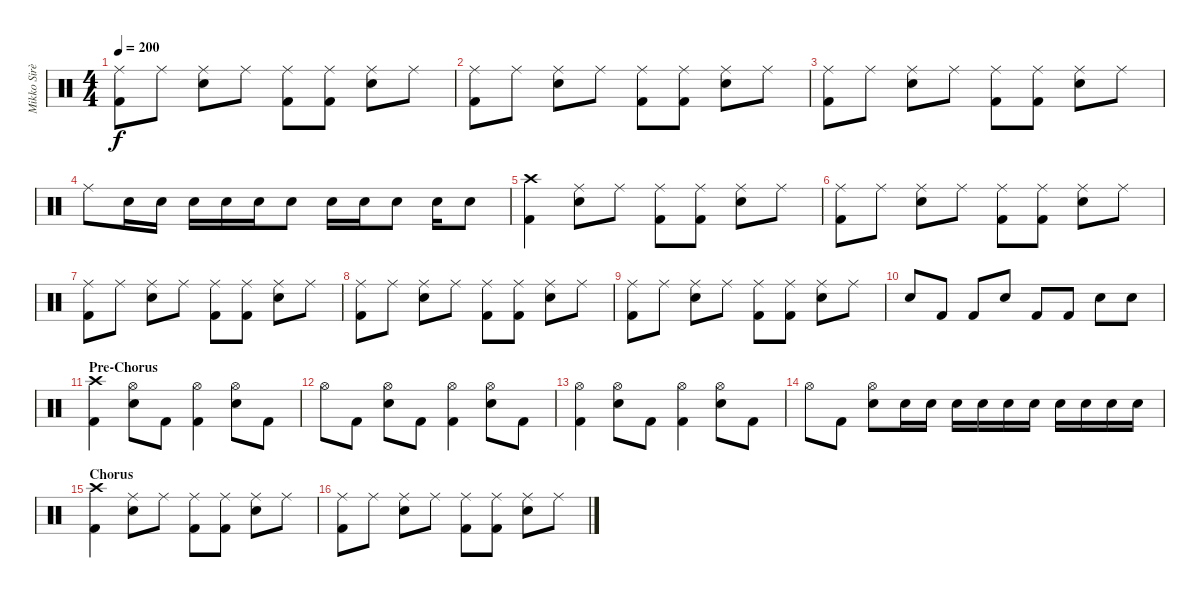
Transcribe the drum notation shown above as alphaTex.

\track ("Mikko Sirèn" "Mikko Sirè") {instrument percussion}
\staff {score}
\articulation defaults
\ts (4 4)
\tempo 200
\clef neutral
\ks c
("Ride (middle)" "Kick (hit) 2").8{dy f} "Ride (middle)".8 ("Ride (middle)" "Electric Snare (hit)").8 "Ride (middle)".8 ("Ride (middle)" "Kick (hit) 2").8 ("Ride (middle)" "Kick (hit) 2").8 ("Ride (middle)" "Electric Snare (hit)").8 "Ride (middle)".8 |
("Ride (middle)" "Kick (hit) 2").8 "Ride (middle)".8 ("Ride (middle)" "Electric Snare (hit)").8 "Ride (middle)".8 ("Ride (middle)" "Kick (hit) 2").8 ("Ride (middle)" "Kick (hit) 2").8 ("Ride (middle)" "Electric Snare (hit)").8 "Ride (middle)".8 |
("Ride (middle)" "Kick (hit) 2").8 "Ride (middle)".8 ("Ride (middle)" "Electric Snare (hit)").8 "Ride (middle)".8 ("Ride (middle)" "Kick (hit) 2").8 ("Ride (middle)" "Kick (hit) 2").8 ("Ride (middle)" "Electric Snare (hit)").8 "Ride (middle)".8 |
"Ride (middle)".8 "Electric Snare (hit)".16 "Electric Snare (hit)".16 "Electric Snare (hit)".16 "Electric Snare (hit)".16 "Electric Snare (hit)".16 "Electric Snare (hit)".8 "Electric Snare (hit)".16 "Electric Snare (hit)".16 "Electric Snare (hit)".8 "Electric Snare (hit)".16 "Electric Snare (hit)".8 |
("Crash high (hit)" "Kick (hit) 2").4 ("Ride (middle)" "Electric Snare (hit)").8 "Ride (middle)".8 ("Ride (middle)" "Kick (hit) 2").8 ("Ride (middle)" "Kick (hit) 2").8 ("Ride (middle)" "Electric Snare (hit)").8 "Ride (middle)".8 |
("Ride (middle)" "Kick (hit) 2").8 "Ride (middle)".8 ("Ride (middle)" "Electric Snare (hit)").8 "Ride (middle)".8 ("Ride (middle)" "Kick (hit) 2").8 ("Ride (middle)" "Kick (hit) 2").8 ("Ride (middle)" "Electric Snare (hit)").8 "Ride (middle)".8 |
("Ride (middle)" "Kick (hit) 2").8 "Ride (middle)".8 ("Ride (middle)" "Electric Snare (hit)").8 "Ride (middle)".8 ("Ride (middle)" "Kick (hit) 2").8 ("Ride (middle)" "Kick (hit) 2").8 ("Ride (middle)" "Electric Snare (hit)").8 "Ride (middle)".8 |
("Ride (middle)" "Kick (hit) 2").8 "Ride (middle)".8 ("Ride (middle)" "Electric Snare (hit)").8 "Ride (middle)".8 ("Ride (middle)" "Kick (hit) 2").8 ("Ride (middle)" "Kick (hit) 2").8 ("Ride (middle)" "Electric Snare (hit)").8 "Ride (middle)".8 |
("Ride (middle)" "Kick (hit) 2").8 "Ride (middle)".8 ("Ride (middle)" "Electric Snare (hit)").8 "Ride (middle)".8 ("Ride (middle)" "Kick (hit) 2").8 ("Ride (middle)" "Kick (hit) 2").8 ("Ride (middle)" "Electric Snare (hit)").8 "Ride (middle)".8 |
"Electric Snare (hit)".8 "Kick (hit) 2".8 "Kick (hit) 2".8 "Electric Snare (hit)".8 "Kick (hit) 2".8 "Kick (hit) 2".8 "Electric Snare (hit)".8 "Electric Snare (hit)".8 |
\section ("" "Pre-Chorus")
("Crash high (hit)" "Kick (hit) 2").4 ("Hi-Hat (open)" "Electric Snare (hit)").8 "Kick (hit) 2".8 ("Hi-Hat (open)" "Kick (hit) 2").4 ("Hi-Hat (open)" "Electric Snare (hit)").8 "Kick (hit) 2".8 |
"Hi-Hat (open)".8 "Kick (hit) 2".8 ("Hi-Hat (open)" "Electric Snare (hit)").8 "Kick (hit) 2".8 ("Hi-Hat (open)" "Kick (hit) 2").4 ("Hi-Hat (open)" "Electric Snare (hit)").8 "Kick (hit) 2".8 |
("Hi-Hat (open)" "Kick (hit) 2").4 ("Hi-Hat (open)" "Electric Snare (hit)").8 "Kick (hit) 2".8 ("Hi-Hat (open)" "Kick (hit) 2").4 ("Hi-Hat (open)" "Electric Snare (hit)").8 "Kick (hit) 2".8 |
"Hi-Hat (open)".8 "Kick (hit) 2".8 ("Hi-Hat (open)" "Electric Snare (hit)").8 "Electric Snare (hit)".16 "Electric Snare (hit)".16 "Electric Snare (hit)".16 "Electric Snare (hit)".16 "Electric Snare (hit)".16 "Electric Snare (hit)".16 "Electric Snare (hit)".16 "Electric Snare (hit)".16 "Electric Snare (hit)".16 "Electric Snare (hit)".16 |
\section ("" "Chorus")
("Crash high (hit)" "Kick (hit) 2").4 ("Ride (middle)" "Electric Snare (hit)").8 "Ride (middle)".8 ("Ride (middle)" "Kick (hit) 2").8 ("Ride (middle)" "Kick (hit) 2").8 ("Ride (middle)" "Electric Snare (hit)").8 "Ride (middle)".8 |
("Ride (middle)" "Kick (hit) 2").8 "Ride (middle)".8 ("Ride (middle)" "Electric Snare (hit)").8 "Ride (middle)".8 ("Ride (middle)" "Kick (hit) 2").8 ("Ride (middle)" "Kick (hit) 2").8 ("Ride (middle)" "Electric Snare (hit)").8 "Ride (middle)".8
